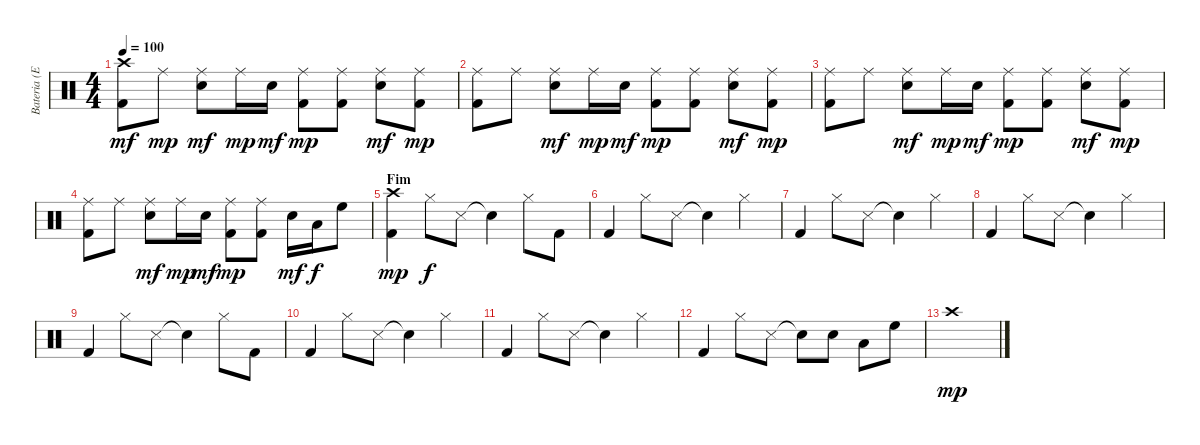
\track ("Bateria (Eduardo)" "Bateria (E") {instrument percussion}
\staff {score}
\articulation defaults
\ts (4 4)
\tempo 100
\clef neutral
\ks c
("Crash high (hit)" "Kick (hit) 2").8{dy mf} "Ride (middle)".8{dy mp} ("Ride (middle)" "Electric Snare (hit)").8{dy mf} "Ride (middle)".16{dy mp} "Electric Snare (hit)".16{dy mf} ("Ride (middle)" "Kick (hit) 2").8{dy mp} ("Ride (middle)" "Kick (hit) 2").8 ("Ride (middle)" "Electric Snare (hit)").8{dy mf} ("Ride (middle)" "Kick (hit) 2").8{dy mp} |
("Ride (middle)" "Kick (hit) 2").8 "Ride (middle)".8 ("Ride (middle)" "Electric Snare (hit)").8{dy mf} "Ride (middle)".16{dy mp} "Electric Snare (hit)".16{dy mf} ("Ride (middle)" "Kick (hit) 2").8{dy mp} ("Ride (middle)" "Kick (hit) 2").8 ("Ride (middle)" "Electric Snare (hit)").8{dy mf} ("Ride (middle)" "Kick (hit) 2").8{dy mp} |
("Ride (middle)" "Kick (hit) 2").8 "Ride (middle)".8 ("Ride (middle)" "Electric Snare (hit)").8{dy mf} "Ride (middle)".16{dy mp} "Electric Snare (hit)".16{dy mf} ("Ride (middle)" "Kick (hit) 2").8{dy mp} ("Ride (middle)" "Kick (hit) 2").8 ("Ride (middle)" "Electric Snare (hit)").8{dy mf} ("Ride (middle)" "Kick (hit) 2").8{dy mp} |
("Ride (middle)" "Kick (hit) 2").8 "Ride (middle)".8 ("Ride (middle)" "Electric Snare (hit)").8{dy mf} "Ride (middle)".16{dy mp} "Electric Snare (hit)".16{dy mf} ("Ride (middle)" "Kick (hit) 2").8{dy mp} ("Ride (middle)" "Kick (hit) 2").8 "Electric Snare (hit)".16{dy mf} "Low Tom (hit)".16{dy f} "High Floor Tom (hit)".8 |
\section ("" "Fim")
("Crash high (hit)" "Kick (hit) 2").4{dy mp} "Hi-Hat (closed)".8{dy f} "Snare (side stick) 3".8 "Snare (hit)"{t}.4 "Hi-Hat (closed)".8 "Kick (hit) 2".8 |
"Kick (hit) 2".4 "Hi-Hat (closed)".8 "Snare (side stick) 3".8 "Snare (hit)"{t}.4 "Hi-Hat (closed)".4 |
"Kick (hit) 2".4 "Hi-Hat (closed)".8 "Snare (side stick) 3".8 "Snare (hit)"{t}.4 "Hi-Hat (closed)".4 |
"Kick (hit) 2".4 "Hi-Hat (closed)".8 "Snare (side stick) 3".8 "Snare (hit)"{t}.4 "Hi-Hat (closed)".4 |
"Kick (hit) 2".4 "Hi-Hat (closed)".8 "Snare (side stick) 3".8 "Snare (hit)"{t}.4 "Hi-Hat (closed)".8 "Kick (hit) 2".8 |
"Kick (hit) 2".4 "Hi-Hat (closed)".8 "Snare (side stick) 3".8 "Snare (hit)"{t}.4 "Hi-Hat (closed)".4 |
"Kick (hit) 2".4 "Hi-Hat (closed)".8 "Snare (side stick) 3".8 "Snare (hit)"{t}.4 "Hi-Hat (closed)".4 |
"Kick (hit) 2".4 "Hi-Hat (closed)".8 "Snare (side stick) 3".8 "Snare (hit)"{t}.8 "Electric Snare (hit)".8 "Low Tom (hit)".8 "High Floor Tom (hit)".8 |
"Crash high (hit)".1{dy mp}
